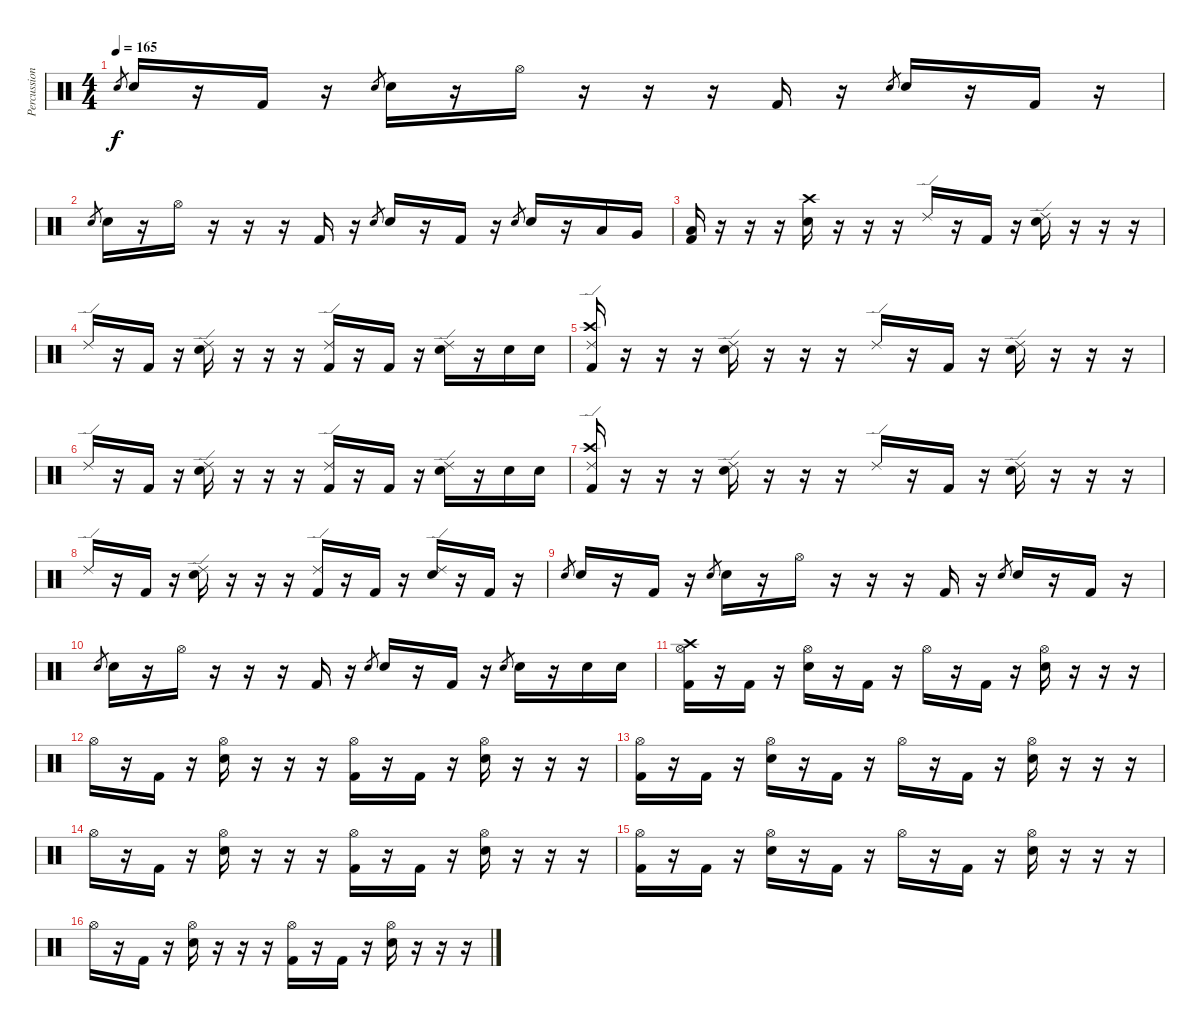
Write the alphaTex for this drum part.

\track ("Percussion" "Percussion") {instrument percussion}
\staff {score}
\articulation defaults
\ts (4 4)
\tempo 165
\clef neutral
\ks c "Snare (hit) 2".8{gr dy f} "Snare (hit) 2".16
r.16 "Kick (hit) 2".16 r.16 "Snare (hit) 2".8{gr} "Snare (hit) 2".16 r.16 "Hi-Hat (open)".16 r.16 r.16 r.16 "Kick (hit) 2".16 r.16 "Snare (hit) 2".8{gr} "Snare (hit) 2".16 r.16 "Kick (hit) 2".16 r.16 |
"Snare (hit) 2".8{gr} "Snare (hit) 2".16 r.16 "Hi-Hat (open)".16 r.16 r.16 r.16 "Kick (hit) 2".16 r.16 "Snare (hit) 2".8{gr} "Snare (hit) 2".16 r.16 "Kick (hit) 2".16 r.16 "Snare (hit) 2".8{gr} "Snare (hit) 2".16 r.16 "Low Tom (hit)".16 "Very Low Tom (hit)".16 |
("Low Floor Tom (hit)" "Kick (hit) 2").16 r.16 r.16 r.16 ("Crash high (hit)" "Snare (hit) 2").16 r.16 r.16 r.16 "Ride (edge) 2".16 r.16 "Kick (hit) 2".16 r.16 ("Ride (edge) 2" "Snare (hit) 2").16 r.16 r.16 r.16 |
"Ride (edge) 2".16 r.16 "Kick (hit) 2".16 r.16 ("Ride (edge) 2" "Snare (hit) 2").16 r.16 r.16 r.16 ("Ride (edge) 2" "Kick (hit) 2").16 r.16 "Kick (hit) 2".16 r.16 ("Ride (edge) 2" "Snare (hit) 2").16 r.16 "Snare (hit) 2".16 "Snare (hit) 2".16 |
("Crash high (hit)" "Ride (edge) 2" "Kick (hit) 2").16 r.16 r.16 r.16 ("Ride (edge) 2" "Snare (hit) 2").16 r.16 r.16 r.16 "Ride (edge) 2".16 r.16 "Kick (hit) 2".16 r.16 ("Ride (edge) 2" "Snare (hit) 2").16 r.16 r.16 r.16 |
"Ride (edge) 2".16 r.16 "Kick (hit) 2".16 r.16 ("Ride (edge) 2" "Snare (hit) 2").16 r.16 r.16 r.16 ("Ride (edge) 2" "Kick (hit) 2").16 r.16 "Kick (hit) 2".16 r.16 ("Ride (edge) 2" "Snare (hit) 2").16 r.16 "Snare (hit) 2".16 "Snare (hit) 2".16 |
("Crash high (hit)" "Ride (edge) 2" "Kick (hit) 2").16 r.16 r.16 r.16 ("Ride (edge) 2" "Snare (hit) 2").16 r.16 r.16 r.16 "Ride (edge) 2".16 r.16 "Kick (hit) 2".16 r.16 ("Ride (edge) 2" "Snare (hit) 2").16 r.16 r.16 r.16 |
"Ride (edge) 2".16 r.16 "Kick (hit) 2".16 r.16 ("Ride (edge) 2" "Snare (hit) 2").16 r.16 r.16 r.16 ("Ride (edge) 2" "Kick (hit) 2").16 r.16 "Kick (hit) 2".16 r.16 ("Ride (edge) 2" "Snare (hit) 2").16 r.16 "Kick (hit) 2".16 r.16 |
"Snare (hit) 2".8{gr} "Snare (hit) 2".16 r.16 "Kick (hit) 2".16 r.16 "Snare (hit) 2".8{gr} "Snare (hit) 2".16 r.16 "Hi-Hat (open)".16 r.16 r.16 r.16 "Kick (hit) 2".16 r.16 "Snare (hit) 2".8{gr} "Snare (hit) 2".16 r.16 "Kick (hit) 2".16 r.16 |
"Snare (hit) 2".8{gr} "Snare (hit) 2".16 r.16 "Hi-Hat (open)".16 r.16 r.16 r.16 "Kick (hit) 2".16 r.16 "Snare (hit) 2".8{gr} "Snare (hit) 2".16 r.16 "Kick (hit) 2".16 r.16 "Snare (hit) 2".8{gr} "Snare (hit) 2".16 r.16 "Snare (hit) 2".16 "Snare (hit) 2".16 |
("Crash high (hit)" "Hi-Hat (open)" "Kick (hit) 2").16 r.16 "Kick (hit) 2".16 r.16 ("Hi-Hat (open)" "Snare (hit) 2").16 r.16 "Kick (hit) 2".16 r.16 "Hi-Hat (open)".16 r.16 "Kick (hit) 2".16 r.16 ("Hi-Hat (open)" "Snare (hit) 2").16 r.16 r.16 r.16 |
"Hi-Hat (open)".16 r.16 "Kick (hit) 2".16 r.16 ("Hi-Hat (open)" "Snare (hit) 2").16 r.16 r.16 r.16 ("Hi-Hat (open)" "Kick (hit) 2").16 r.16 "Kick (hit) 2".16 r.16 ("Hi-Hat (open)" "Snare (hit) 2").16 r.16 r.16 r.16 |
("Hi-Hat (open)" "Kick (hit) 2").16 r.16 "Kick (hit) 2".16 r.16 ("Hi-Hat (open)" "Snare (hit) 2").16 r.16 "Kick (hit) 2".16 r.16 "Hi-Hat (open)".16 r.16 "Kick (hit) 2".16 r.16 ("Hi-Hat (open)" "Snare (hit) 2").16 r.16 r.16 r.16 |
"Hi-Hat (open)".16 r.16 "Kick (hit) 2".16 r.16 ("Hi-Hat (open)" "Snare (hit) 2").16 r.16 r.16 r.16 ("Hi-Hat (open)" "Kick (hit) 2").16 r.16 "Kick (hit) 2".16 r.16 ("Hi-Hat (open)" "Snare (hit) 2").16 r.16 r.16 r.16 |
("Hi-Hat (open)" "Kick (hit) 2").16 r.16 "Kick (hit) 2".16 r.16 ("Hi-Hat (open)" "Snare (hit) 2").16 r.16 "Kick (hit) 2".16 r.16 "Hi-Hat (open)".16 r.16 "Kick (hit) 2".16 r.16 ("Hi-Hat (open)" "Snare (hit) 2").16 r.16 r.16 r.16 |
"Hi-Hat (open)".16 r.16 "Kick (hit) 2".16 r.16 ("Hi-Hat (open)" "Snare (hit) 2").16 r.16 r.16 r.16 ("Hi-Hat (open)" "Kick (hit) 2").16 r.16 "Kick (hit) 2".16 r.16 ("Hi-Hat (open)" "Snare (hit) 2").16 r.16 r.16 r.16
